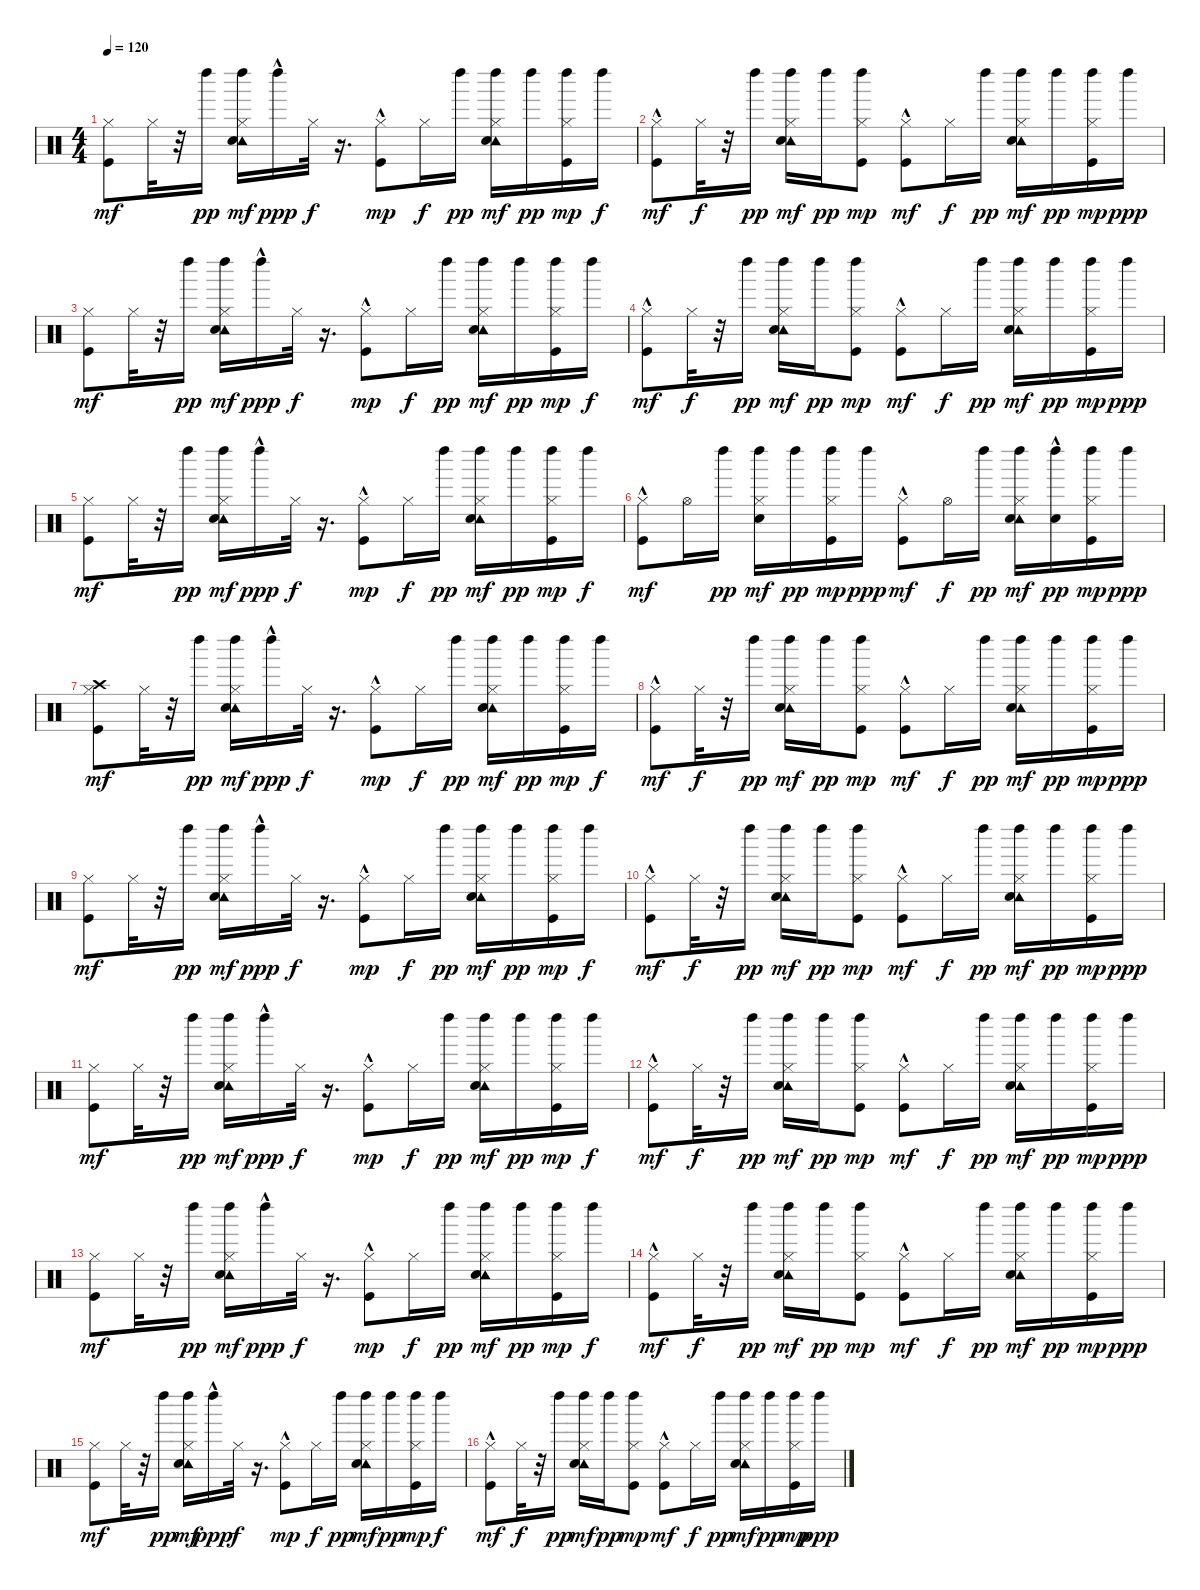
\track "" {instrument percussion}
\staff {score}
\articulation defaults
\ts (4 4)
\tempo 120
\clef neutral
\ks c
("Kick (hit)" "Hi-Hat (closed)").8{dy mf} "Hi-Hat (closed)".32 r.32 "Left Maraca (hit)".16{dy pp} ("Left Maraca (hit)" "Tambourine (hit)" "Electric Snare (hit)" "Hi-Hat (closed)").16{dy mf} "Left Maraca (hit)"{hac}.16{dy ppp} "Hi-Hat (closed)".32{dy f} r.16{d} ("Hi-Hat (closed)" "Kick (hit)"{hac}).8{dy mp} "Hi-Hat (closed)".16{dy f} "Left Maraca (hit)".16{dy pp} ("Left Maraca (hit)" "Tambourine (hit)" "Electric Snare (hit)" "Hi-Hat (closed)").16{dy mf} "Left Maraca (hit)".16{dy pp} ("Left Maraca (hit)" "Kick (hit)" "Hi-Hat (closed)").16{dy mp} "Left Maraca (hit)".16{dy f} |
("Kick (hit)"{hac} "Hi-Hat (closed)").8{dy mf} "Hi-Hat (closed)".32{dy f} r.32 "Left Maraca (hit)".16{dy pp} ("Left Maraca (hit)" "Tambourine (hit)" "Hi-Hat (closed)" "Electric Snare (hit)").16{dy mf} "Left Maraca (hit)".16{dy pp} ("Left Maraca (hit)" "Hi-Hat (closed)" "Kick (hit)").8{dy mp} ("Kick (hit)"{hac} "Hi-Hat (closed)").8{dy mf} "Hi-Hat (closed)".16{dy f} "Left Maraca (hit)".16{dy pp} ("Left Maraca (hit)" "Tambourine (hit)" "Electric Snare (hit)" "Hi-Hat (closed)").16{dy mf} "Left Maraca (hit)".16{dy pp} ("Left Maraca (hit)" "Kick (hit)" "Hi-Hat (closed)").16{dy mp} "Left Maraca (hit)".16{dy ppp} |
("Kick (hit)" "Hi-Hat (closed)").8{dy mf} "Hi-Hat (closed)".32 r.32 "Left Maraca (hit)".16{dy pp} ("Left Maraca (hit)" "Tambourine (hit)" "Electric Snare (hit)" "Hi-Hat (closed)").16{dy mf} "Left Maraca (hit)"{hac}.16{dy ppp} "Hi-Hat (closed)".32{dy f} r.16{d} ("Hi-Hat (closed)" "Kick (hit)"{hac}).8{dy mp} "Hi-Hat (closed)".16{dy f} "Left Maraca (hit)".16{dy pp} ("Left Maraca (hit)" "Tambourine (hit)" "Electric Snare (hit)" "Hi-Hat (closed)").16{dy mf} "Left Maraca (hit)".16{dy pp} ("Left Maraca (hit)" "Kick (hit)" "Hi-Hat (closed)").16{dy mp} "Left Maraca (hit)".16{dy f} |
("Kick (hit)"{hac} "Hi-Hat (closed)").8{dy mf} "Hi-Hat (closed)".32{dy f} r.32 "Left Maraca (hit)".16{dy pp} ("Left Maraca (hit)" "Tambourine (hit)" "Hi-Hat (closed)" "Electric Snare (hit)").16{dy mf} "Left Maraca (hit)".16{dy pp} ("Left Maraca (hit)" "Hi-Hat (closed)" "Kick (hit)").8{dy mp} ("Kick (hit)"{hac} "Hi-Hat (closed)").8{dy mf} "Hi-Hat (closed)".16{dy f} "Left Maraca (hit)".16{dy pp} ("Left Maraca (hit)" "Tambourine (hit)" "Electric Snare (hit)" "Hi-Hat (closed)").16{dy mf} "Left Maraca (hit)".16{dy pp} ("Left Maraca (hit)" "Kick (hit)" "Hi-Hat (closed)").16{dy mp} "Left Maraca (hit)".16{dy ppp} |
("Kick (hit)" "Hi-Hat (closed)").8{dy mf} "Hi-Hat (closed)".32 r.32 "Left Maraca (hit)".16{dy pp} ("Left Maraca (hit)" "Tambourine (hit)" "Electric Snare (hit)" "Hi-Hat (closed)").16{dy mf} "Left Maraca (hit)"{hac}.16{dy ppp} "Hi-Hat (closed)".32{dy f} r.16{d} ("Hi-Hat (closed)" "Kick (hit)"{hac}).8{dy mp} "Hi-Hat (closed)".16{dy f} "Left Maraca (hit)".16{dy pp} ("Left Maraca (hit)" "Tambourine (hit)" "Electric Snare (hit)" "Hi-Hat (closed)").16{dy mf} "Left Maraca (hit)".16{dy pp} ("Left Maraca (hit)" "Kick (hit)" "Hi-Hat (closed)").16{dy mp} "Left Maraca (hit)".16{dy f} |
("Kick (hit)"{hac} "Hi-Hat (closed)").8{dy mf} "Hi-Hat (open)".16 "Left Maraca (hit)".16{dy pp} ("Left Maraca (hit)" "Hi-Hat (closed)" "Electric Snare (hit)").16{dy mf} "Left Maraca (hit)".16{dy pp} ("Left Maraca (hit)" "Hi-Hat (closed)" "Kick (hit)").16{dy mp} "Left Maraca (hit)".16{dy ppp} ("Kick (hit)"{hac} "Hi-Hat (closed)").8{dy mf} "Hi-Hat (open)".16{dy f} "Left Maraca (hit)".16{dy pp} ("Left Maraca (hit)" "Tambourine (hit)" "Electric Snare (hit)" "Hi-Hat (closed)").16{dy mf} ("Electric Snare (hit)"{hac} "Left Maraca (hit)").16{dy pp} ("Left Maraca (hit)" "Kick (hit)" "Hi-Hat (closed)").16{dy mp} "Left Maraca (hit)".16{dy ppp} |
("Crash high (hit)" "Kick (hit)" "Hi-Hat (closed)").8{dy mf} "Hi-Hat (closed)".32 r.32 "Left Maraca (hit)".16{dy pp} ("Left Maraca (hit)" "Tambourine (hit)" "Electric Snare (hit)" "Hi-Hat (closed)").16{dy mf} "Left Maraca (hit)"{hac}.16{dy ppp} "Hi-Hat (closed)".32{dy f} r.16{d} ("Hi-Hat (closed)" "Kick (hit)"{hac}).8{dy mp} "Hi-Hat (closed)".16{dy f} "Left Maraca (hit)".16{dy pp} ("Left Maraca (hit)" "Tambourine (hit)" "Electric Snare (hit)" "Hi-Hat (closed)").16{dy mf} "Left Maraca (hit)".16{dy pp} ("Left Maraca (hit)" "Kick (hit)" "Hi-Hat (closed)").16{dy mp} "Left Maraca (hit)".16{dy f} |
("Kick (hit)"{hac} "Hi-Hat (closed)").8{dy mf} "Hi-Hat (closed)".32{dy f} r.32 "Left Maraca (hit)".16{dy pp} ("Left Maraca (hit)" "Tambourine (hit)" "Hi-Hat (closed)" "Electric Snare (hit)").16{dy mf} "Left Maraca (hit)".16{dy pp} ("Left Maraca (hit)" "Hi-Hat (closed)" "Kick (hit)").8{dy mp} ("Kick (hit)"{hac} "Hi-Hat (closed)").8{dy mf} "Hi-Hat (closed)".16{dy f} "Left Maraca (hit)".16{dy pp} ("Left Maraca (hit)" "Tambourine (hit)" "Electric Snare (hit)" "Hi-Hat (closed)").16{dy mf} "Left Maraca (hit)".16{dy pp} ("Left Maraca (hit)" "Kick (hit)" "Hi-Hat (closed)").16{dy mp} "Left Maraca (hit)".16{dy ppp} |
("Kick (hit)" "Hi-Hat (closed)").8{dy mf} "Hi-Hat (closed)".32 r.32 "Left Maraca (hit)".16{dy pp} ("Left Maraca (hit)" "Tambourine (hit)" "Electric Snare (hit)" "Hi-Hat (closed)").16{dy mf} "Left Maraca (hit)"{hac}.16{dy ppp} "Hi-Hat (closed)".32{dy f} r.16{d} ("Hi-Hat (closed)" "Kick (hit)"{hac}).8{dy mp} "Hi-Hat (closed)".16{dy f} "Left Maraca (hit)".16{dy pp} ("Left Maraca (hit)" "Tambourine (hit)" "Electric Snare (hit)" "Hi-Hat (closed)").16{dy mf} "Left Maraca (hit)".16{dy pp} ("Left Maraca (hit)" "Kick (hit)" "Hi-Hat (closed)").16{dy mp} "Left Maraca (hit)".16{dy f} |
("Kick (hit)"{hac} "Hi-Hat (closed)").8{dy mf} "Hi-Hat (closed)".32{dy f} r.32 "Left Maraca (hit)".16{dy pp} ("Left Maraca (hit)" "Tambourine (hit)" "Hi-Hat (closed)" "Electric Snare (hit)").16{dy mf} "Left Maraca (hit)".16{dy pp} ("Left Maraca (hit)" "Hi-Hat (closed)" "Kick (hit)").8{dy mp} ("Kick (hit)"{hac} "Hi-Hat (closed)").8{dy mf} "Hi-Hat (closed)".16{dy f} "Left Maraca (hit)".16{dy pp} ("Left Maraca (hit)" "Tambourine (hit)" "Electric Snare (hit)" "Hi-Hat (closed)").16{dy mf} "Left Maraca (hit)".16{dy pp} ("Left Maraca (hit)" "Kick (hit)" "Hi-Hat (closed)").16{dy mp} "Left Maraca (hit)".16{dy ppp} |
("Kick (hit)" "Hi-Hat (closed)").8{dy mf} "Hi-Hat (closed)".32 r.32 "Left Maraca (hit)".16{dy pp} ("Left Maraca (hit)" "Tambourine (hit)" "Electric Snare (hit)" "Hi-Hat (closed)").16{dy mf} "Left Maraca (hit)"{hac}.16{dy ppp} "Hi-Hat (closed)".32{dy f} r.16{d} ("Hi-Hat (closed)" "Kick (hit)"{hac}).8{dy mp} "Hi-Hat (closed)".16{dy f} "Left Maraca (hit)".16{dy pp} ("Left Maraca (hit)" "Tambourine (hit)" "Electric Snare (hit)" "Hi-Hat (closed)").16{dy mf} "Left Maraca (hit)".16{dy pp} ("Left Maraca (hit)" "Kick (hit)" "Hi-Hat (closed)").16{dy mp} "Left Maraca (hit)".16{dy f} |
("Kick (hit)"{hac} "Hi-Hat (closed)").8{dy mf} "Hi-Hat (closed)".32{dy f} r.32 "Left Maraca (hit)".16{dy pp} ("Left Maraca (hit)" "Tambourine (hit)" "Hi-Hat (closed)" "Electric Snare (hit)").16{dy mf} "Left Maraca (hit)".16{dy pp} ("Left Maraca (hit)" "Hi-Hat (closed)" "Kick (hit)").8{dy mp} ("Kick (hit)"{hac} "Hi-Hat (closed)").8{dy mf} "Hi-Hat (closed)".16{dy f} "Left Maraca (hit)".16{dy pp} ("Left Maraca (hit)" "Tambourine (hit)" "Electric Snare (hit)" "Hi-Hat (closed)").16{dy mf} "Left Maraca (hit)".16{dy pp} ("Left Maraca (hit)" "Kick (hit)" "Hi-Hat (closed)").16{dy mp} "Left Maraca (hit)".16{dy ppp} |
("Kick (hit)" "Hi-Hat (closed)").8{dy mf} "Hi-Hat (closed)".32 r.32 "Left Maraca (hit)".16{dy pp} ("Left Maraca (hit)" "Tambourine (hit)" "Electric Snare (hit)" "Hi-Hat (closed)").16{dy mf} "Left Maraca (hit)"{hac}.16{dy ppp} "Hi-Hat (closed)".32{dy f} r.16{d} ("Hi-Hat (closed)" "Kick (hit)"{hac}).8{dy mp} "Hi-Hat (closed)".16{dy f} "Left Maraca (hit)".16{dy pp} ("Left Maraca (hit)" "Tambourine (hit)" "Electric Snare (hit)" "Hi-Hat (closed)").16{dy mf} "Left Maraca (hit)".16{dy pp} ("Left Maraca (hit)" "Kick (hit)" "Hi-Hat (closed)").16{dy mp} "Left Maraca (hit)".16{dy f} |
("Kick (hit)"{hac} "Hi-Hat (closed)").8{dy mf} "Hi-Hat (closed)".32{dy f} r.32 "Left Maraca (hit)".16{dy pp} ("Left Maraca (hit)" "Tambourine (hit)" "Hi-Hat (closed)" "Electric Snare (hit)").16{dy mf} "Left Maraca (hit)".16{dy pp} ("Left Maraca (hit)" "Hi-Hat (closed)" "Kick (hit)").8{dy mp} ("Kick (hit)"{hac} "Hi-Hat (closed)").8{dy mf} "Hi-Hat (closed)".16{dy f} "Left Maraca (hit)".16{dy pp} ("Left Maraca (hit)" "Tambourine (hit)" "Electric Snare (hit)" "Hi-Hat (closed)").16{dy mf} "Left Maraca (hit)".16{dy pp} ("Left Maraca (hit)" "Kick (hit)" "Hi-Hat (closed)").16{dy mp} "Left Maraca (hit)".16{dy ppp} |
("Kick (hit)" "Hi-Hat (closed)").8{dy mf} "Hi-Hat (closed)".32 r.32 "Left Maraca (hit)".16{dy pp} ("Left Maraca (hit)" "Tambourine (hit)" "Electric Snare (hit)" "Hi-Hat (closed)").16{dy mf} "Left Maraca (hit)"{hac}.16{dy ppp} "Hi-Hat (closed)".32{dy f} r.16{d} ("Hi-Hat (closed)" "Kick (hit)"{hac}).8{dy mp} "Hi-Hat (closed)".16{dy f} "Left Maraca (hit)".16{dy pp} ("Left Maraca (hit)" "Tambourine (hit)" "Electric Snare (hit)" "Hi-Hat (closed)").16{dy mf} "Left Maraca (hit)".16{dy pp} ("Left Maraca (hit)" "Kick (hit)" "Hi-Hat (closed)").16{dy mp} "Left Maraca (hit)".16{dy f} |
("Kick (hit)"{hac} "Hi-Hat (closed)").8{dy mf} "Hi-Hat (closed)".32{dy f} r.32 "Left Maraca (hit)".16{dy pp} ("Left Maraca (hit)" "Tambourine (hit)" "Hi-Hat (closed)" "Electric Snare (hit)").16{dy mf} "Left Maraca (hit)".16{dy pp} ("Left Maraca (hit)" "Hi-Hat (closed)" "Kick (hit)").8{dy mp} ("Kick (hit)"{hac} "Hi-Hat (closed)").8{dy mf} "Hi-Hat (closed)".16{dy f} "Left Maraca (hit)".16{dy pp} ("Left Maraca (hit)" "Tambourine (hit)" "Electric Snare (hit)" "Hi-Hat (closed)").16{dy mf} "Left Maraca (hit)".16{dy pp} ("Left Maraca (hit)" "Kick (hit)" "Hi-Hat (closed)").16{dy mp} "Left Maraca (hit)".16{dy ppp}
